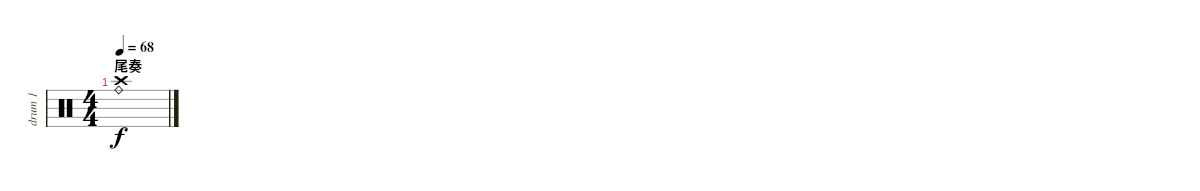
\track ("drum 1" "drum 1") {instrument percussion}
\staff {score}
\articulation defaults
\ts (4 4)
\section ("" "尾奏")
\tempo 68
\clef neutral
\ks c
("Ride (bell)" "Crash high (hit)").1{dy f}
